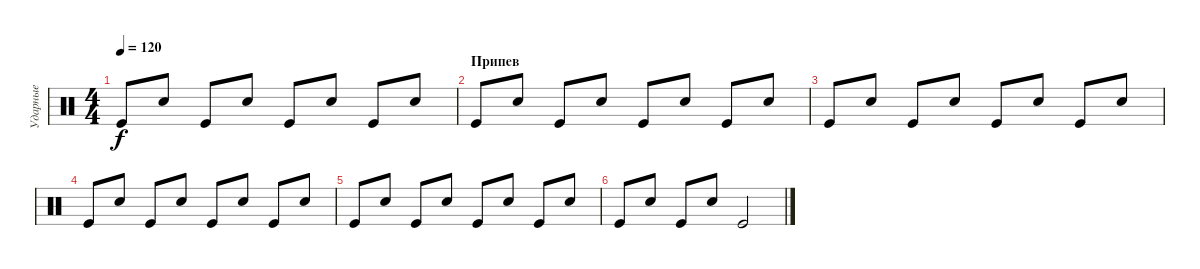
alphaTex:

\track ("Ударные" "Ударные") {instrument percussion}
\staff {score}
\articulation defaults
\ts (4 4)
\tempo 120
\clef neutral
\ks c "Kick (hit)".8{dy f} "Electric Snare (hit)".8 "Kick (hit)".8 "Electric Snare (hit)".8 "Kick (hit)".8 "Electric Snare (hit)".8 "Kick (hit)".8 "Electric Snare (hit)".8
|
\section ("" "Припев")
"Kick (hit)".8 "Electric Snare (hit)".8 "Kick (hit)".8 "Electric Snare (hit)".8 "Kick (hit)".8 "Electric Snare (hit)".8 "Kick (hit)".8 "Electric Snare (hit)".8 |
"Kick (hit)".8 "Electric Snare (hit)".8 "Kick (hit)".8 "Electric Snare (hit)".8 "Kick (hit)".8 "Electric Snare (hit)".8 "Kick (hit)".8 "Electric Snare (hit)".8 |
"Kick (hit)".8 "Electric Snare (hit)".8 "Kick (hit)".8 "Electric Snare (hit)".8 "Kick (hit)".8 "Electric Snare (hit)".8 "Kick (hit)".8 "Electric Snare (hit)".8 |
"Kick (hit)".8 "Electric Snare (hit)".8 "Kick (hit)".8 "Electric Snare (hit)".8 "Kick (hit)".8 "Electric Snare (hit)".8 "Kick (hit)".8 "Electric Snare (hit)".8 |
"Kick (hit)".8 "Electric Snare (hit)".8 "Kick (hit)".8 "Electric Snare (hit)".8 "Kick (hit)".2
